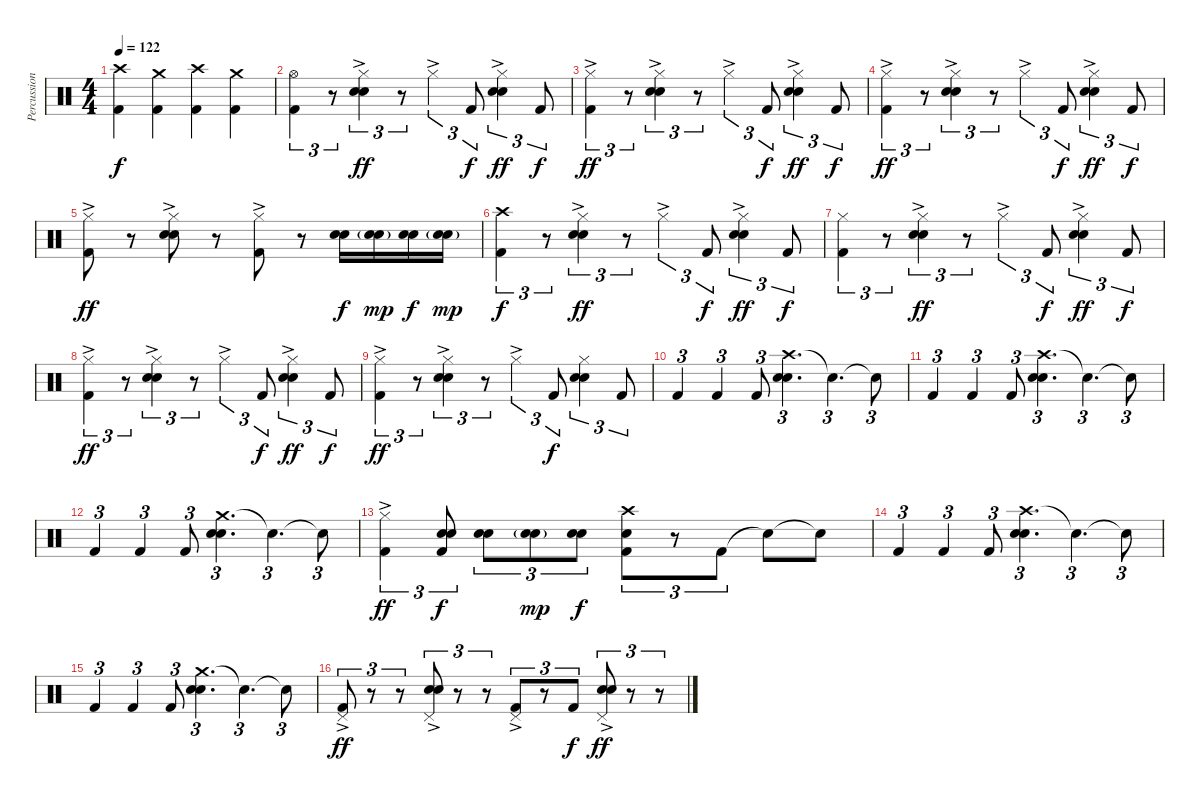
\track ("Percussion" "Percussion") {instrument percussion}
\staff {score}
\articulation defaults
\ts (4 4)
\tempo 122
\clef neutral
\ks c
("Crash high (hit)" "Kick (hit) 2").4{dy f} ("Crash medium (hit)" "Kick (hit) 2").4 ("Crash high (hit)" "Kick (hit) 2").4 ("Crash medium (hit)" "Kick (hit) 2").4 |
("Hi-Hat (open)" "Kick (hit) 2").4{tu (3 2)} r.8{tu (3 2)} ("Hi-Hat (closed)"{ac} "Snare (hit) 2" "Electric Snare (hit)").4{tu (3 2) dy ff} r.8{tu (3 2)} "Hi-Hat (closed)"{ac}.4{tu (3 2)} "Kick (hit) 2".8{tu (3 2) dy f} ("Hi-Hat (closed)"{ac} "Snare (hit) 2" "Electric Snare (hit)").4{tu (3 2) dy ff} "Kick (hit) 2".8{tu (3 2) dy f} |
("Hi-Hat (closed)"{ac} "Kick (hit) 2").4{tu (3 2) dy ff} r.8{tu (3 2)} ("Hi-Hat (closed)"{ac} "Snare (hit) 2" "Electric Snare (hit)").4{tu (3 2)} r.8{tu (3 2)} "Hi-Hat (closed)"{ac}.4{tu (3 2)} "Kick (hit) 2".8{tu (3 2) dy f} ("Hi-Hat (closed)"{ac} "Snare (hit) 2" "Electric Snare (hit)").4{tu (3 2) dy ff} "Kick (hit) 2".8{tu (3 2) dy f} |
("Hi-Hat (closed)"{ac} "Kick (hit) 2").4{tu (3 2) dy ff} r.8{tu (3 2)} ("Hi-Hat (closed)"{ac} "Snare (hit) 2" "Electric Snare (hit)").4{tu (3 2)} r.8{tu (3 2)} "Hi-Hat (closed)"{ac}.4{tu (3 2)} "Kick (hit) 2".8{tu (3 2) dy f} ("Hi-Hat (closed)"{ac} "Snare (hit) 2" "Electric Snare (hit)").4{tu (3 2) dy ff} "Kick (hit) 2".8{tu (3 2) dy f} |
("Hi-Hat (closed)"{ac} "Kick (hit) 2").8{dy ff} r.8 ("Hi-Hat (closed)"{ac} "Snare (hit) 2" "Electric Snare (hit)").8 r.8 ("Hi-Hat (closed)"{ac} "Kick (hit) 2").8 r.8 ("Snare (hit) 2" "Electric Snare (hit)").16{dy f} ("Snare (hit) 2"{g} "Electric Snare (hit)"{g}).16{dy mp} ("Snare (hit) 2" "Electric Snare (hit)").16{dy f} ("Snare (hit) 2"{g} "Electric Snare (hit)"{g}).16{dy mp} |
("Crash high (hit)" "Kick (hit) 2").4{tu (3 2) dy f} r.8{tu (3 2)} ("Hi-Hat (closed)"{ac} "Snare (hit) 2" "Electric Snare (hit)").4{tu (3 2) dy ff} r.8{tu (3 2)} "Hi-Hat (closed)"{ac}.4{tu (3 2)} "Kick (hit) 2".8{tu (3 2) dy f} ("Hi-Hat (closed)"{ac} "Snare (hit) 2" "Electric Snare (hit)").4{tu (3 2) dy ff} "Kick (hit) 2".8{tu (3 2) dy f} |
("Hi-Hat (closed)" "Kick (hit) 2").4{tu (3 2)} r.8{tu (3 2)} ("Hi-Hat (closed)"{ac} "Snare (hit) 2" "Electric Snare (hit)").4{tu (3 2) dy ff} r.8{tu (3 2)} "Hi-Hat (closed)"{ac}.4{tu (3 2)} "Kick (hit) 2".8{tu (3 2) dy f} ("Hi-Hat (closed)"{ac} "Snare (hit) 2" "Electric Snare (hit)").4{tu (3 2) dy ff} "Kick (hit) 2".8{tu (3 2) dy f} |
("Hi-Hat (closed)"{ac} "Kick (hit) 2").4{tu (3 2) dy ff} r.8{tu (3 2)} ("Hi-Hat (closed)"{ac} "Snare (hit) 2" "Electric Snare (hit)").4{tu (3 2)} r.8{tu (3 2)} "Hi-Hat (closed)"{ac}.4{tu (3 2)} "Kick (hit) 2".8{tu (3 2) dy f} ("Hi-Hat (closed)"{ac} "Snare (hit) 2" "Electric Snare (hit)").4{tu (3 2) dy ff} "Kick (hit) 2".8{tu (3 2) dy f} |
("Hi-Hat (closed)"{ac} "Kick (hit) 2").4{tu (3 2) dy ff} r.8{tu (3 2)} ("Hi-Hat (closed)"{ac} "Snare (hit) 2" "Electric Snare (hit)").4{tu (3 2)} r.8{tu (3 2)} "Hi-Hat (closed)"{ac}.4{tu (3 2)} "Kick (hit) 2".8{tu (3 2) dy f} ("Hi-Hat (closed)" "Snare (hit) 2" "Electric Snare (hit)").4{tu (3 2)} "Kick (hit) 2".8{tu (3 2)} |
"Kick (hit) 2".4{tu (3 2)} "Kick (hit) 2".4{tu (3 2)} "Kick (hit) 2".8{tu (3 2)} ("Crash high (hit)" "Snare (hit) 2" "Electric Snare (hit)").4{d tu (3 2)} "Snare (hit)"{t}.4{d tu (3 2)} "Snare (hit)"{t}.8{tu (3 2)} |
"Kick (hit) 2".4{tu (3 2)} "Kick (hit) 2".4{tu (3 2)} "Kick (hit) 2".8{tu (3 2)} ("Crash high (hit)" "Snare (hit) 2" "Electric Snare (hit)").4{d tu (3 2)} "Snare (hit)"{t}.4{d tu (3 2)} "Snare (hit)"{t}.8{tu (3 2)} |
"Kick (hit) 2".4{tu (3 2)} "Kick (hit) 2".4{tu (3 2)} "Kick (hit) 2".8{tu (3 2)} ("Crash medium (hit)" "Snare (hit) 2" "Electric Snare (hit)").4{d tu (3 2)} "Snare (hit)"{t}.4{d tu (3 2)} "Snare (hit)"{t}.8{tu (3 2)} |
("Hi-Hat (closed)"{ac} "Kick (hit) 2").4{tu (3 2) dy ff} ("Electric Snare (hit)" "Snare (hit) 2" "Kick (hit) 2").8{tu (3 2) dy f} ("Electric Snare (hit)" "Snare (hit) 2").8{tu (3 2)} ("Electric Snare (hit)"{g} "Snare (hit) 2"{g}).8{tu (3 2) dy mp} ("Electric Snare (hit)" "Snare (hit) 2").8{tu (3 2) dy f} ("Crash high (hit)" "Snare (hit) 2" "Kick (hit) 2").8{tu (3 2)} r.8{tu (3 2)} "Kick (hit) 2".8{tu (3 2)} "Snare (hit)"{t}.8 "Snare (hit)"{t}.8 |
"Kick (hit) 2".4{tu (3 2)} "Kick (hit) 2".4{tu (3 2)} "Kick (hit) 2".8{tu (3 2)} ("Crash high (hit)" "Snare (hit) 2" "Electric Snare (hit)").4{d tu (3 2)} "Snare (hit)"{t}.4{d tu (3 2)} "Snare (hit)"{t}.8{tu (3 2)} |
"Kick (hit) 2".4{tu (3 2)} "Kick (hit) 2".4{tu (3 2)} "Kick (hit) 2".8{tu (3 2)} ("Crash medium (hit)" "Snare (hit) 2" "Electric Snare (hit)").4{d tu (3 2)} "Snare (hit)"{t}.4{d tu (3 2)} "Snare (hit)"{t}.8{tu (3 2)} |
("Pedal Hi-Hat (hit)"{ac} "Kick (hit) 2").8{tu (3 2) dy ff} r.8{tu (3 2)} r.8{tu (3 2)} ("Pedal Hi-Hat (hit)"{ac} "Snare (hit) 2" "Electric Snare (hit)").8{tu (3 2)} r.8{tu (3 2)} r.8{tu (3 2)} ("Pedal Hi-Hat (hit)"{ac} "Kick (hit) 2").8{tu (3 2)} r.8{tu (3 2)} "Kick (hit) 2".8{tu (3 2) dy f} ("Pedal Hi-Hat (hit)"{ac} "Snare (hit) 2" "Electric Snare (hit)").8{tu (3 2) dy ff} r.8{tu (3 2)} r.8{tu (3 2)}
